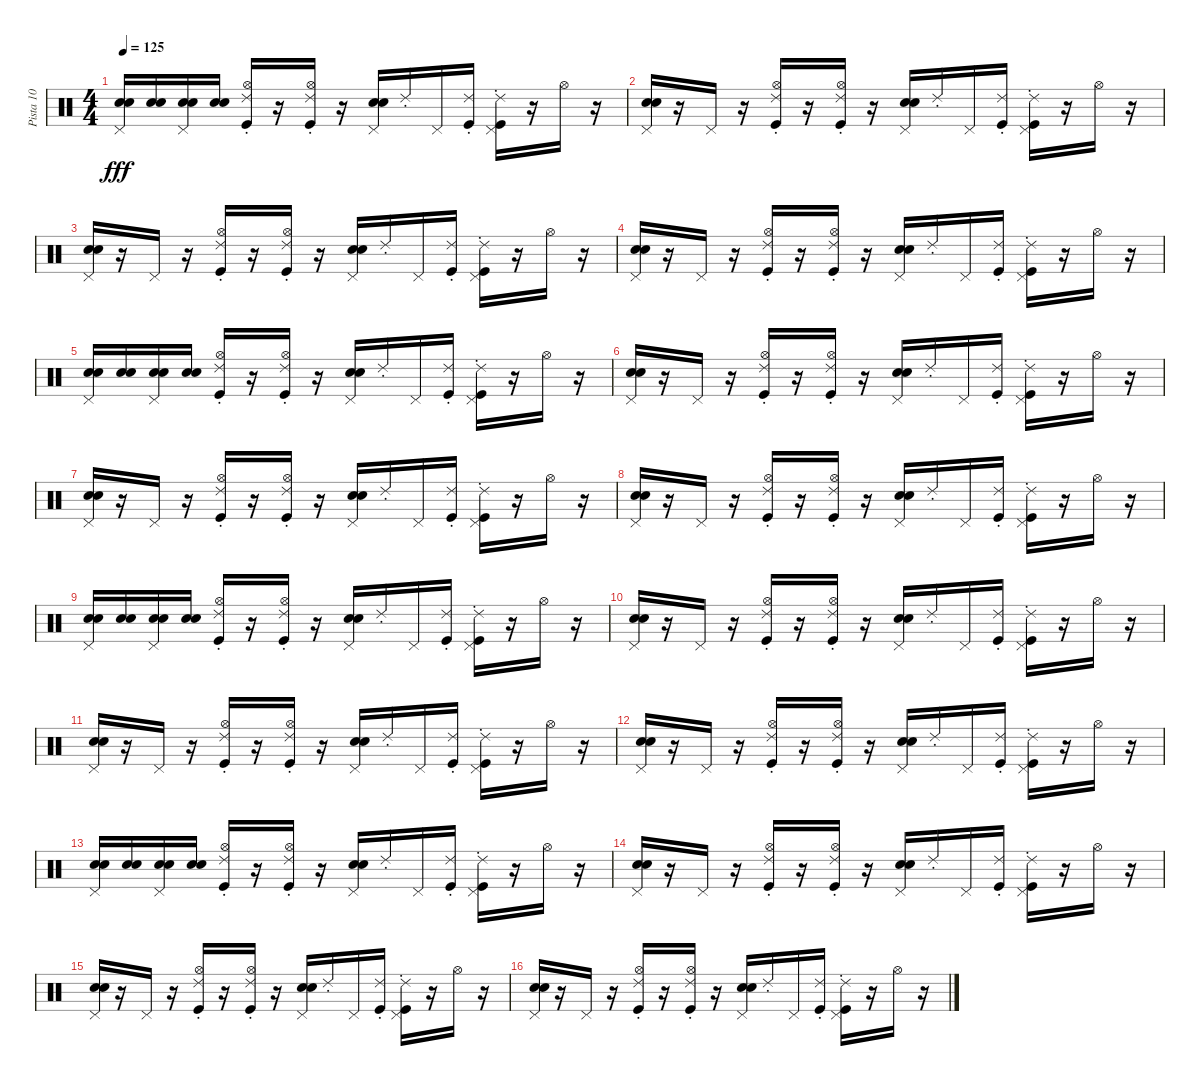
\track ("Pista 10" "Pista 10") {instrument percussion}
\staff {score}
\articulation defaults
\ts (4 4)
\tempo 125
\clef neutral
\ks c
("Pedal Hi-Hat (hit)" "Hand Clap (hit)" "Electric Snare (hit)").16{dy fff} ("Electric Snare (hit)" "Hand Clap (hit)").16 ("Pedal Hi-Hat (hit)" "Hand Clap (hit)" "Electric Snare (hit)").16 ("Hand Clap (hit)" "Electric Snare (hit)").16 ("Ride (choke) 2" "Hi-Hat (open)" "Kick (hit)").16 r.16 ("Ride (choke) 2" "Hi-Hat (open)" "Kick (hit)").16 r.16 ("Pedal Hi-Hat (hit)" "Electric Snare (hit)" "Hand Clap (hit)").16 "Ride (choke) 2".16 "Pedal Hi-Hat (hit)".16 ("Kick (hit)" "Ride (choke) 2").16 ("Ride (choke) 2" "Pedal Hi-Hat (hit)" "Kick (hit)").16 r.16 "Hi-Hat (open)".16 r.16 |
("Pedal Hi-Hat (hit)" "Hand Clap (hit)" "Electric Snare (hit)").16 r.16 "Pedal Hi-Hat (hit)".16 r.16 ("Kick (hit)" "Hi-Hat (open)" "Ride (choke) 2").16 r.16 ("Hi-Hat (open)" "Kick (hit)" "Ride (choke) 2").16 r.16 ("Electric Snare (hit)" "Pedal Hi-Hat (hit)" "Hand Clap (hit)").16 "Ride (choke) 2".16 "Pedal Hi-Hat (hit)".16 ("Kick (hit)" "Ride (choke) 2").16 ("Pedal Hi-Hat (hit)" "Kick (hit)" "Ride (choke) 2").16 r.16 "Hi-Hat (open)".16 r.16 |
("Electric Snare (hit)" "Hand Clap (hit)" "Pedal Hi-Hat (hit)").16 r.16 "Pedal Hi-Hat (hit)".16 r.16 ("Ride (choke) 2" "Kick (hit)" "Hi-Hat (open)").16 r.16 ("Ride (choke) 2" "Kick (hit)" "Hi-Hat (open)").16 r.16 ("Electric Snare (hit)" "Hand Clap (hit)" "Pedal Hi-Hat (hit)").16 "Ride (choke) 2".16 "Pedal Hi-Hat (hit)".16 ("Ride (choke) 2" "Kick (hit)").16 ("Ride (choke) 2" "Kick (hit)" "Pedal Hi-Hat (hit)").16 r.16 "Hi-Hat (open)".16 r.16 |
("Hand Clap (hit)" "Electric Snare (hit)" "Pedal Hi-Hat (hit)").16 r.16 "Pedal Hi-Hat (hit)".16 r.16 ("Hi-Hat (open)" "Kick (hit)" "Ride (choke) 2").16 r.16 ("Hi-Hat (open)" "Kick (hit)" "Ride (choke) 2").16 r.16 ("Pedal Hi-Hat (hit)" "Electric Snare (hit)" "Hand Clap (hit)").16 "Ride (choke) 2".16 "Pedal Hi-Hat (hit)".16 ("Kick (hit)" "Ride (choke) 2").16 ("Pedal Hi-Hat (hit)" "Kick (hit)" "Ride (choke) 2").16 r.16 "Hi-Hat (open)".16 r.16 |
("Pedal Hi-Hat (hit)" "Hand Clap (hit)" "Electric Snare (hit)").16 ("Electric Snare (hit)" "Hand Clap (hit)").16 ("Pedal Hi-Hat (hit)" "Hand Clap (hit)" "Electric Snare (hit)").16 ("Hand Clap (hit)" "Electric Snare (hit)").16 ("Ride (choke) 2" "Hi-Hat (open)" "Kick (hit)").16 r.16 ("Ride (choke) 2" "Hi-Hat (open)" "Kick (hit)").16 r.16 ("Pedal Hi-Hat (hit)" "Electric Snare (hit)" "Hand Clap (hit)").16 "Ride (choke) 2".16 "Pedal Hi-Hat (hit)".16 ("Kick (hit)" "Ride (choke) 2").16 ("Ride (choke) 2" "Pedal Hi-Hat (hit)" "Kick (hit)").16 r.16 "Hi-Hat (open)".16 r.16 |
("Pedal Hi-Hat (hit)" "Hand Clap (hit)" "Electric Snare (hit)").16 r.16 "Pedal Hi-Hat (hit)".16 r.16 ("Kick (hit)" "Hi-Hat (open)" "Ride (choke) 2").16 r.16 ("Kick (hit)" "Hi-Hat (open)" "Ride (choke) 2").16 r.16 ("Electric Snare (hit)" "Pedal Hi-Hat (hit)" "Hand Clap (hit)").16 "Ride (choke) 2".16 "Pedal Hi-Hat (hit)".16 ("Ride (choke) 2" "Kick (hit)").16 ("Kick (hit)" "Pedal Hi-Hat (hit)" "Ride (choke) 2").16 r.16 "Hi-Hat (open)".16 r.16 |
("Electric Snare (hit)" "Hand Clap (hit)" "Pedal Hi-Hat (hit)").16 r.16 "Pedal Hi-Hat (hit)".16 r.16 ("Ride (choke) 2" "Kick (hit)" "Hi-Hat (open)").16 r.16 ("Kick (hit)" "Hi-Hat (open)" "Ride (choke) 2").16 r.16 ("Electric Snare (hit)" "Hand Clap (hit)" "Pedal Hi-Hat (hit)").16 "Ride (choke) 2".16 "Pedal Hi-Hat (hit)".16 ("Ride (choke) 2" "Kick (hit)").16 ("Ride (choke) 2" "Kick (hit)" "Pedal Hi-Hat (hit)").16 r.16 "Hi-Hat (open)".16 r.16 |
("Pedal Hi-Hat (hit)" "Electric Snare (hit)" "Hand Clap (hit)").16 r.16 "Pedal Hi-Hat (hit)".16 r.16 ("Kick (hit)" "Hi-Hat (open)" "Ride (choke) 2").16 r.16 ("Kick (hit)" "Ride (choke) 2" "Hi-Hat (open)").16 r.16 ("Hand Clap (hit)" "Electric Snare (hit)" "Pedal Hi-Hat (hit)").16 "Ride (choke) 2".16 "Pedal Hi-Hat (hit)".16 ("Kick (hit)" "Ride (choke) 2").16 ("Kick (hit)" "Ride (choke) 2" "Pedal Hi-Hat (hit)").16 r.16 "Hi-Hat (open)".16 r.16 |
("Pedal Hi-Hat (hit)" "Hand Clap (hit)" "Electric Snare (hit)").16 ("Electric Snare (hit)" "Hand Clap (hit)").16 ("Pedal Hi-Hat (hit)" "Hand Clap (hit)" "Electric Snare (hit)").16 ("Hand Clap (hit)" "Electric Snare (hit)").16 ("Kick (hit)" "Hi-Hat (open)" "Ride (choke) 2").16 r.16 ("Hi-Hat (open)" "Kick (hit)" "Ride (choke) 2").16 r.16 ("Hand Clap (hit)" "Pedal Hi-Hat (hit)" "Electric Snare (hit)").16 "Ride (choke) 2".16 "Pedal Hi-Hat (hit)".16 ("Ride (choke) 2" "Kick (hit)").16 ("Pedal Hi-Hat (hit)" "Ride (choke) 2" "Kick (hit)").16 r.16 "Hi-Hat (open)".16 r.16 |
("Electric Snare (hit)" "Hand Clap (hit)" "Pedal Hi-Hat (hit)").16 r.16 "Pedal Hi-Hat (hit)".16 r.16 ("Hi-Hat (open)" "Kick (hit)" "Ride (choke) 2").16 r.16 ("Hi-Hat (open)" "Ride (choke) 2" "Kick (hit)").16 r.16 ("Electric Snare (hit)" "Pedal Hi-Hat (hit)" "Hand Clap (hit)").16 "Ride (choke) 2".16 "Pedal Hi-Hat (hit)".16 ("Kick (hit)" "Ride (choke) 2").16 ("Kick (hit)" "Ride (choke) 2" "Pedal Hi-Hat (hit)").16 r.16 "Hi-Hat (open)".16 r.16 |
("Electric Snare (hit)" "Pedal Hi-Hat (hit)" "Hand Clap (hit)").16 r.16 "Pedal Hi-Hat (hit)".16 r.16 ("Hi-Hat (open)" "Kick (hit)" "Ride (choke) 2").16 r.16 ("Kick (hit)" "Hi-Hat (open)" "Ride (choke) 2").16 r.16 ("Electric Snare (hit)" "Pedal Hi-Hat (hit)" "Hand Clap (hit)").16 "Ride (choke) 2".16 "Pedal Hi-Hat (hit)".16 ("Ride (choke) 2" "Kick (hit)").16 ("Kick (hit)" "Pedal Hi-Hat (hit)" "Ride (choke) 2").16 r.16 "Hi-Hat (open)".16 r.16 |
("Hand Clap (hit)" "Electric Snare (hit)" "Pedal Hi-Hat (hit)").16 r.16 "Pedal Hi-Hat (hit)".16 r.16 ("Hi-Hat (open)" "Kick (hit)" "Ride (choke) 2").16 r.16 ("Hi-Hat (open)" "Ride (choke) 2" "Kick (hit)").16 r.16 ("Electric Snare (hit)" "Hand Clap (hit)" "Pedal Hi-Hat (hit)").16 "Ride (choke) 2".16 "Pedal Hi-Hat (hit)".16 ("Ride (choke) 2" "Kick (hit)").16 ("Pedal Hi-Hat (hit)" "Kick (hit)" "Ride (choke) 2").16 r.16 "Hi-Hat (open)".16 r.16 |
("Pedal Hi-Hat (hit)" "Hand Clap (hit)" "Electric Snare (hit)").16 ("Electric Snare (hit)" "Hand Clap (hit)").16 ("Pedal Hi-Hat (hit)" "Hand Clap (hit)" "Electric Snare (hit)").16 ("Hand Clap (hit)" "Electric Snare (hit)").16 ("Hi-Hat (open)" "Kick (hit)" "Ride (choke) 2").16 r.16 ("Kick (hit)" "Ride (choke) 2" "Hi-Hat (open)").16 r.16 ("Electric Snare (hit)" "Pedal Hi-Hat (hit)" "Hand Clap (hit)").16 "Ride (choke) 2".16 "Pedal Hi-Hat (hit)".16 ("Ride (choke) 2" "Kick (hit)").16 ("Ride (choke) 2" "Kick (hit)" "Pedal Hi-Hat (hit)").16 r.16 "Hi-Hat (open)".16 r.16 |
("Electric Snare (hit)" "Pedal Hi-Hat (hit)" "Hand Clap (hit)").16 r.16 "Pedal Hi-Hat (hit)".16 r.16 ("Ride (choke) 2" "Kick (hit)" "Hi-Hat (open)").16 r.16 ("Kick (hit)" "Hi-Hat (open)" "Ride (choke) 2").16 r.16 ("Electric Snare (hit)" "Pedal Hi-Hat (hit)" "Hand Clap (hit)").16 "Ride (choke) 2".16 "Pedal Hi-Hat (hit)".16 ("Ride (choke) 2" "Kick (hit)").16 ("Pedal Hi-Hat (hit)" "Kick (hit)" "Ride (choke) 2").16 r.16 "Hi-Hat (open)".16 r.16 |
("Pedal Hi-Hat (hit)" "Electric Snare (hit)" "Hand Clap (hit)").16 r.16 "Pedal Hi-Hat (hit)".16 r.16 ("Hi-Hat (open)" "Ride (choke) 2" "Kick (hit)").16 r.16 ("Ride (choke) 2" "Kick (hit)" "Hi-Hat (open)").16 r.16 ("Electric Snare (hit)" "Pedal Hi-Hat (hit)" "Hand Clap (hit)").16 "Ride (choke) 2".16 "Pedal Hi-Hat (hit)".16 ("Ride (choke) 2" "Kick (hit)").16 ("Ride (choke) 2" "Kick (hit)" "Pedal Hi-Hat (hit)").16 r.16 "Hi-Hat (open)".16 r.16 |
("Hand Clap (hit)" "Electric Snare (hit)" "Pedal Hi-Hat (hit)").16 r.16 "Pedal Hi-Hat (hit)".16 r.16 ("Kick (hit)" "Ride (choke) 2" "Hi-Hat (open)").16 r.16 ("Ride (choke) 2" "Kick (hit)" "Hi-Hat (open)").16 r.16 ("Pedal Hi-Hat (hit)" "Hand Clap (hit)" "Electric Snare (hit)").16 "Ride (choke) 2".16 "Pedal Hi-Hat (hit)".16 ("Ride (choke) 2" "Kick (hit)").16 ("Pedal Hi-Hat (hit)" "Ride (choke) 2" "Kick (hit)").16 r.16 "Hi-Hat (open)".16 r.16
